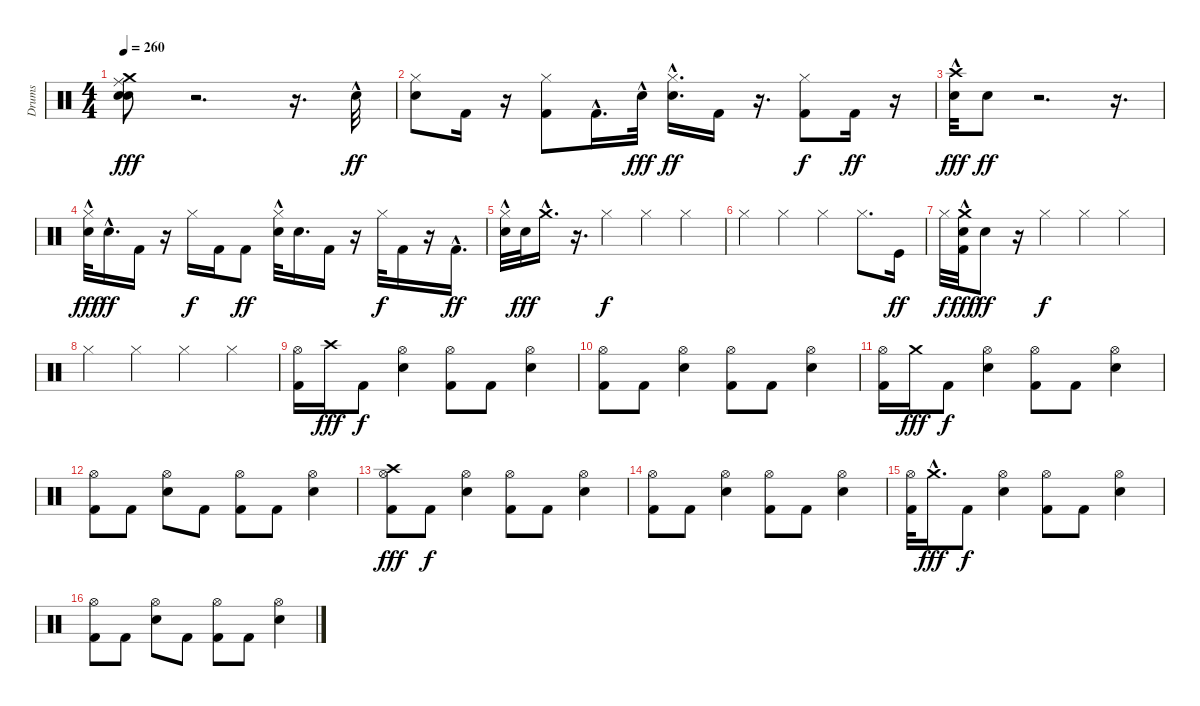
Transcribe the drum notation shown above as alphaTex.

\track ("Drums" "Drums") {instrument percussion}
\staff {score}
\articulation defaults
\ts (4 4)
\tempo 260
\clef neutral
\ks c
("Electric Snare (hit)" "Snare (hit) 2" "Ride (middle)" "Crash medium (hit)").8{dy fff} r.2{d} r.16{d} "Electric Snare (hit)"{hac}.32{dy ff} |
("Hi-Hat (closed)" "Snare (hit) 2").8 "Kick (hit) 2".16 r.16 ("Hi-Hat (closed)" "Kick (hit) 2").8 "Kick (hit) 2"{hac}.16{d} "Electric Snare (hit)"{hac}.32{dy fff} ("Hi-Hat (closed)" "Snare (hit) 2"{hac}).16{d dy ff} "Kick (hit) 2".16 r.16{d} ("Hi-Hat (closed)" "Kick (hit) 2").8{dy f} "Kick (hit) 2".16{dy ff} r.16 |
("Crash high (hit)" "Electric Snare (hit)"{hac}).32{dy fff} "Snare (hit) 2".8{dy ff} r.2{d} r.16{d} |
("Hi-Hat (closed)" "Electric Snare (hit)"{hac}).32{dy fff} "Snare (hit) 2"{hac}.16{d dy ff} "Kick (hit) 2".16 r.16 "Hi-Hat (closed)".16{dy f} "Kick (hit) 2".16 "Kick (hit) 2".8{dy ff} ("Electric Snare (hit)"{hac} "Hi-Hat (closed)").32 "Snare (hit) 2".16{d} "Kick (hit) 2".16 r.16 "Hi-Hat (closed)".32{dy f} "Kick (hit) 2".16 r.16 "Kick (hit) 2"{hac}.16{d dy ff} |
("Hi-Hat (closed)" "Electric Snare (hit)"{hac}).32 "Snare (hit) 2".32{dy fff} "Crash medium (hit)"{hac}.16{d} r.16{d} "Hi-Hat (closed)".4{dy f} "Hi-Hat (closed)".4 "Hi-Hat (closed)".4 |
"Hi-Hat (closed)".4 "Hi-Hat (closed)".4 "Hi-Hat (closed)".4 "Hi-Hat (closed)".8{d} "Kick (hit)".16{dy ff} |
"Hi-Hat (closed)".32{dy f} ("Kick (hit) 2" "Electric Snare (hit)"{hac} "Crash medium (hit)").32{dy fff} "Snare (hit) 2".8{dy ff} r.16 "Hi-Hat (closed)".4{dy f} "Hi-Hat (closed)".4 "Hi-Hat (closed)".4 |
"Hi-Hat (closed)".4 "Hi-Hat (closed)".4 "Hi-Hat (closed)".4 "Hi-Hat (closed)".4 |
("Hi-Hat (open)" "Kick (hit) 2").16 "Crash high (hit)".16{dy fff} "Kick (hit) 2".8{dy f} ("Hi-Hat (open)" "Snare (hit) 2").4 ("Hi-Hat (open)" "Kick (hit) 2").8 "Kick (hit) 2".8 ("Hi-Hat (open)" "Snare (hit) 2").4 |
("Hi-Hat (open)" "Kick (hit) 2").8 "Kick (hit) 2".8 ("Hi-Hat (open)" "Snare (hit) 2").4 ("Hi-Hat (open)" "Kick (hit) 2").8 "Kick (hit) 2".8 ("Hi-Hat (open)" "Snare (hit) 2").4 |
("Hi-Hat (open)" "Kick (hit) 2").16 "Crash medium (hit)".16{dy fff} "Kick (hit) 2".8{dy f} ("Hi-Hat (open)" "Snare (hit) 2").4 ("Hi-Hat (open)" "Kick (hit) 2").8 "Kick (hit) 2".8 ("Hi-Hat (open)" "Snare (hit) 2").4 |
("Hi-Hat (open)" "Kick (hit) 2").8 "Kick (hit) 2".8 ("Hi-Hat (open)" "Snare (hit) 2").8 "Kick (hit) 2".8 ("Hi-Hat (open)" "Kick (hit) 2").8 "Kick (hit) 2".8 ("Hi-Hat (open)" "Snare (hit) 2").4 |
("Hi-Hat (open)" "Kick (hit) 2" "Crash high (hit)").8{dy fff} "Kick (hit) 2".8{dy f} ("Hi-Hat (open)" "Snare (hit) 2").4 ("Hi-Hat (open)" "Kick (hit) 2").8 "Kick (hit) 2".8 ("Hi-Hat (open)" "Snare (hit) 2").4 |
("Hi-Hat (open)" "Kick (hit) 2").8 "Kick (hit) 2".8 ("Hi-Hat (open)" "Snare (hit) 2").4 ("Hi-Hat (open)" "Kick (hit) 2").8 "Kick (hit) 2".8 ("Hi-Hat (open)" "Snare (hit) 2").4 |
("Hi-Hat (open)" "Kick (hit) 2").32 "Crash medium (hit)"{hac}.16{d dy fff} "Kick (hit) 2".8{dy f} ("Hi-Hat (open)" "Snare (hit) 2").4 ("Hi-Hat (open)" "Kick (hit) 2").8 "Kick (hit) 2".8 ("Hi-Hat (open)" "Snare (hit) 2").4 |
("Hi-Hat (open)" "Kick (hit) 2").8 "Kick (hit) 2".8 ("Hi-Hat (open)" "Snare (hit) 2").8 "Kick (hit) 2".8 ("Hi-Hat (open)" "Kick (hit) 2").8 "Kick (hit) 2".8 ("Hi-Hat (open)" "Snare (hit) 2").4
